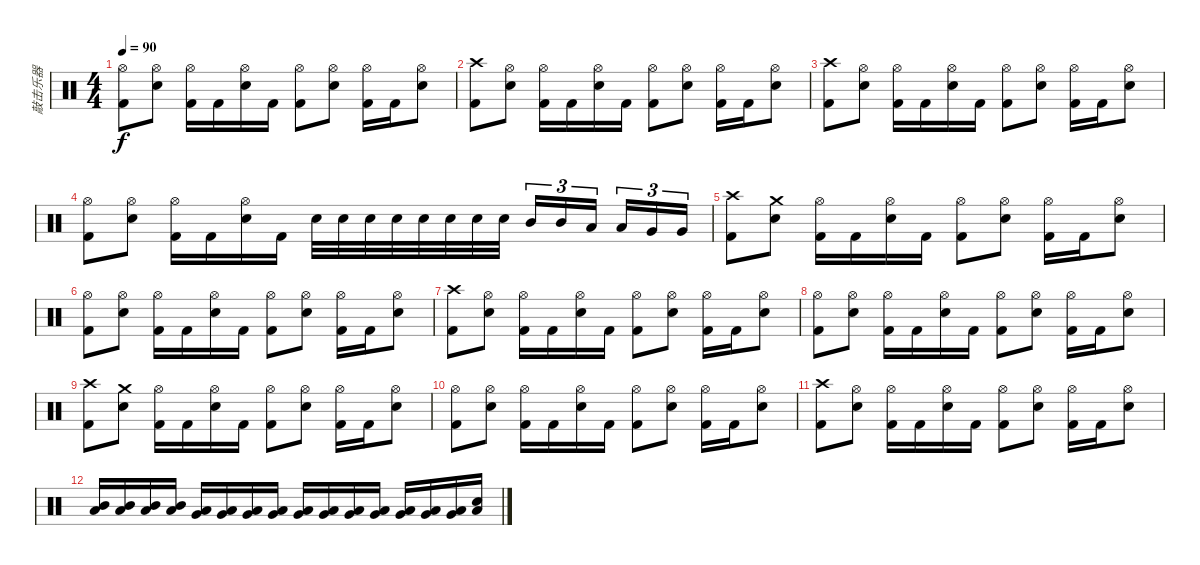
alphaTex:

\track ("敲击乐器" "敲击乐器") {instrument percussion}
\staff {score}
\articulation defaults
\ts (4 4)
\tempo 90
\clef neutral
\ks c
("Hi-Hat (open)" "Kick (hit) 2").8{dy f} ("Hi-Hat (open)" "Snare (hit) 2").8 ("Hi-Hat (open)" "Kick (hit) 2").16 "Kick (hit) 2".16 ("Hi-Hat (open)" "Snare (hit) 2").16 "Kick (hit) 2".16 ("Hi-Hat (open)" "Kick (hit) 2").8 ("Hi-Hat (open)" "Snare (hit) 2").8 ("Hi-Hat (open)" "Kick (hit) 2").16 "Kick (hit) 2".16 ("Hi-Hat (open)" "Snare (hit) 2").8 |
("Crash high (hit)" "Kick (hit) 2").8 ("Hi-Hat (open)" "Snare (hit) 2").8 ("Hi-Hat (open)" "Kick (hit) 2").16 "Kick (hit) 2".16 ("Hi-Hat (open)" "Snare (hit) 2").16 "Kick (hit) 2".16 ("Hi-Hat (open)" "Kick (hit) 2").8 ("Hi-Hat (open)" "Snare (hit) 2").8 ("Hi-Hat (open)" "Kick (hit) 2").16 "Kick (hit) 2".16 ("Hi-Hat (open)" "Snare (hit) 2").8 |
("Crash high (hit)" "Kick (hit) 2").8 ("Hi-Hat (open)" "Snare (hit) 2").8 ("Hi-Hat (open)" "Kick (hit) 2").16 "Kick (hit) 2".16 ("Hi-Hat (open)" "Snare (hit) 2").16 "Kick (hit) 2".16 ("Hi-Hat (open)" "Kick (hit) 2").8 ("Hi-Hat (open)" "Snare (hit) 2").8 ("Hi-Hat (open)" "Kick (hit) 2").16 "Kick (hit) 2".16 ("Hi-Hat (open)" "Snare (hit) 2").8 |
("Hi-Hat (open)" "Kick (hit) 2").8 ("Hi-Hat (open)" "Snare (hit) 2").8 ("Hi-Hat (open)" "Kick (hit) 2").16 "Kick (hit) 2".16 ("Hi-Hat (open)" "Snare (hit) 2").16 "Kick (hit) 2".16 "Snare (hit) 2".32 "Snare (hit) 2".32 "Snare (hit) 2".32 "Snare (hit) 2".32 "Snare (hit) 2".32 "Snare (hit) 2".32 "Snare (hit) 2".32 "Snare (hit) 2".32 "Mid Tom (hit)".16{tu (3 2)} "Mid Tom (hit)".16{tu (3 2)} "Low Tom (hit)".16{tu (3 2) beam splitsecondary} "Low Tom (hit)".16{tu (3 2)} "Very Low Tom (hit)".16{tu (3 2)} "Very Low Tom (hit)".16{tu (3 2)} |
("Crash high (hit)" "Kick (hit) 2").8 ("Crash medium (hit)" "Snare (hit) 2").8 ("Hi-Hat (open)" "Kick (hit) 2").16 "Kick (hit) 2".16 ("Hi-Hat (open)" "Snare (hit) 2").16 "Kick (hit) 2".16 ("Hi-Hat (open)" "Kick (hit) 2").8 ("Hi-Hat (open)" "Snare (hit) 2").8 ("Hi-Hat (open)" "Kick (hit) 2").16 "Kick (hit) 2".16 ("Hi-Hat (open)" "Snare (hit) 2").8 |
("Hi-Hat (open)" "Kick (hit) 2").8 ("Hi-Hat (open)" "Snare (hit) 2").8 ("Hi-Hat (open)" "Kick (hit) 2").16 "Kick (hit) 2".16 ("Hi-Hat (open)" "Snare (hit) 2").16 "Kick (hit) 2".16 ("Hi-Hat (open)" "Kick (hit) 2").8 ("Hi-Hat (open)" "Snare (hit) 2").8 ("Hi-Hat (open)" "Kick (hit) 2").16 "Kick (hit) 2".16 ("Hi-Hat (open)" "Snare (hit) 2").8 |
("Crash high (hit)" "Kick (hit) 2").8 ("Hi-Hat (open)" "Snare (hit) 2").8 ("Hi-Hat (open)" "Kick (hit) 2").16 "Kick (hit) 2".16 ("Hi-Hat (open)" "Snare (hit) 2").16 "Kick (hit) 2".16 ("Hi-Hat (open)" "Kick (hit) 2").8 ("Hi-Hat (open)" "Snare (hit) 2").8 ("Hi-Hat (open)" "Kick (hit) 2").16 "Kick (hit) 2".16 ("Hi-Hat (open)" "Snare (hit) 2").8 |
("Hi-Hat (open)" "Kick (hit) 2").8 ("Hi-Hat (open)" "Snare (hit) 2").8 ("Hi-Hat (open)" "Kick (hit) 2").16 "Kick (hit) 2".16 ("Hi-Hat (open)" "Snare (hit) 2").16 "Kick (hit) 2".16 ("Hi-Hat (open)" "Kick (hit) 2").8 ("Hi-Hat (open)" "Snare (hit) 2").8 ("Hi-Hat (open)" "Kick (hit) 2").16 "Kick (hit) 2".16 ("Hi-Hat (open)" "Snare (hit) 2").8 |
("Crash high (hit)" "Kick (hit) 2").8 ("Crash medium (hit)" "Snare (hit) 2").8 ("Hi-Hat (open)" "Kick (hit) 2").16 "Kick (hit) 2".16 ("Hi-Hat (open)" "Snare (hit) 2").16 "Kick (hit) 2".16 ("Hi-Hat (open)" "Kick (hit) 2").8 ("Hi-Hat (open)" "Snare (hit) 2").8 ("Hi-Hat (open)" "Kick (hit) 2").16 "Kick (hit) 2".16 ("Hi-Hat (open)" "Snare (hit) 2").8 |
("Hi-Hat (open)" "Kick (hit) 2").8 ("Hi-Hat (open)" "Snare (hit) 2").8 ("Hi-Hat (open)" "Kick (hit) 2").16 "Kick (hit) 2".16 ("Hi-Hat (open)" "Snare (hit) 2").16 "Kick (hit) 2".16 ("Hi-Hat (open)" "Kick (hit) 2").8 ("Hi-Hat (open)" "Snare (hit) 2").8 ("Hi-Hat (open)" "Kick (hit) 2").16 "Kick (hit) 2".16 ("Hi-Hat (open)" "Snare (hit) 2").8 |
("Crash high (hit)" "Kick (hit) 2").8 ("Hi-Hat (open)" "Snare (hit) 2").8 ("Hi-Hat (open)" "Kick (hit) 2").16 "Kick (hit) 2".16 ("Hi-Hat (open)" "Snare (hit) 2").16 "Kick (hit) 2".16 ("Hi-Hat (open)" "Kick (hit) 2").8 ("Hi-Hat (open)" "Snare (hit) 2").8 ("Hi-Hat (open)" "Kick (hit) 2").16 "Kick (hit) 2".16 ("Hi-Hat (open)" "Snare (hit) 2").8 |
("Low Tom (hit)" "Mid Tom (hit)").16 ("Low Tom (hit)" "Mid Tom (hit)").16 ("Low Tom (hit)" "Mid Tom (hit)").16 ("Low Tom (hit)" "Mid Tom (hit)").16 ("Very Low Tom (hit)" "Low Tom (hit)").16 ("Very Low Tom (hit)" "Low Tom (hit)").16 ("Very Low Tom (hit)" "Low Tom (hit)").16 ("Very Low Tom (hit)" "Low Tom (hit)").16 ("Low Floor Tom (hit)" "Very Low Tom (hit)").16 ("Low Floor Tom (hit)" "Very Low Tom (hit)").16 ("Low Floor Tom (hit)" "Very Low Tom (hit)").16 ("Low Floor Tom (hit)" "Very Low Tom (hit)").16 ("Very Low Tom (hit)" "Low Floor Tom (hit)").16 ("Very Low Tom (hit)" "Low Floor Tom (hit)").16 ("Very Low Tom (hit)" "Low Floor Tom (hit)").16 ("Snare (hit) 2" "Low Floor Tom (hit)").16
